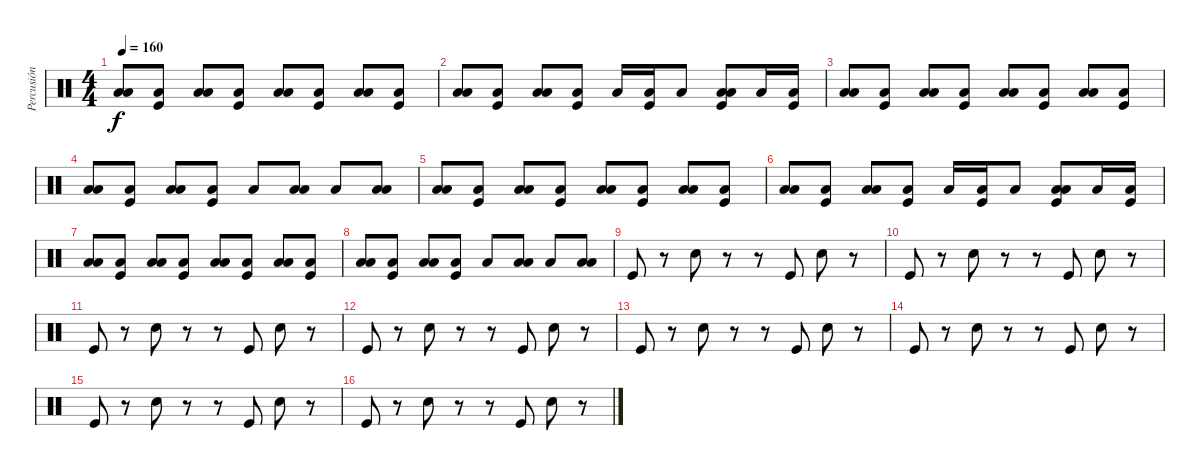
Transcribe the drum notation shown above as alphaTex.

\track ("Percusión" "Percusión") {instrument percussion}
\staff {score}
\articulation defaults
\ts (4 4)
\tempo 160
\clef neutral
\ks c
("Low Tom (hit)" "Low Floor Tom (hit)").8{dy f} ("Low Floor Tom (hit)" "Kick (hit)").8 ("Low Tom (hit)" "Low Floor Tom (hit)").8 ("Low Floor Tom (hit)" "Kick (hit)").8 ("Low Tom (hit)" "Low Floor Tom (hit)").8 ("Low Floor Tom (hit)" "Kick (hit)").8 ("Low Tom (hit)" "Low Floor Tom (hit)").8 ("Low Floor Tom (hit)" "Kick (hit)").8 |
("Low Tom (hit)" "Low Floor Tom (hit)").8 ("Low Floor Tom (hit)" "Kick (hit)").8 ("Low Tom (hit)" "Low Floor Tom (hit)").8 ("Low Floor Tom (hit)" "Kick (hit)").8 "Low Floor Tom (hit)".16 ("Low Tom (hit)" "Kick (hit)").16 "Low Floor Tom (hit)".8 ("Low Tom (hit)" "Low Floor Tom (hit)" "Kick (hit)").8 "Low Floor Tom (hit)".16 ("Low Tom (hit)" "Kick (hit)").16 |
("Low Tom (hit)" "Low Floor Tom (hit)").8 ("Low Floor Tom (hit)" "Kick (hit)").8 ("Low Tom (hit)" "Low Floor Tom (hit)").8 ("Low Floor Tom (hit)" "Kick (hit)").8 ("Low Tom (hit)" "Low Floor Tom (hit)").8 ("Low Floor Tom (hit)" "Kick (hit)").8 ("Low Tom (hit)" "Low Floor Tom (hit)").8 ("Low Floor Tom (hit)" "Kick (hit)").8 |
("Low Tom (hit)" "Low Floor Tom (hit)").8 ("Low Floor Tom (hit)" "Kick (hit)").8 ("Low Tom (hit)" "Low Floor Tom (hit)").8 ("Low Floor Tom (hit)" "Kick (hit)").8 "Low Floor Tom (hit)".8 ("Low Tom (hit)" "Low Floor Tom (hit)").8 "Low Floor Tom (hit)".8 ("Low Tom (hit)" "Low Floor Tom (hit)").8 |
("Low Tom (hit)" "Low Floor Tom (hit)").8 ("Low Floor Tom (hit)" "Kick (hit)").8 ("Low Tom (hit)" "Low Floor Tom (hit)").8 ("Low Floor Tom (hit)" "Kick (hit)").8 ("Low Tom (hit)" "Low Floor Tom (hit)").8 ("Low Floor Tom (hit)" "Kick (hit)").8 ("Low Tom (hit)" "Low Floor Tom (hit)").8 ("Low Floor Tom (hit)" "Kick (hit)").8 |
("Low Tom (hit)" "Low Floor Tom (hit)").8 ("Low Floor Tom (hit)" "Kick (hit)").8 ("Low Tom (hit)" "Low Floor Tom (hit)").8 ("Low Floor Tom (hit)" "Kick (hit)").8 "Low Floor Tom (hit)".16 ("Low Tom (hit)" "Kick (hit)").16 "Low Floor Tom (hit)".8 ("Low Tom (hit)" "Low Floor Tom (hit)" "Kick (hit)").8 "Low Floor Tom (hit)".16 ("Low Tom (hit)" "Kick (hit)").16 |
("Low Tom (hit)" "Low Floor Tom (hit)").8 ("Low Floor Tom (hit)" "Kick (hit)").8 ("Low Tom (hit)" "Low Floor Tom (hit)").8 ("Low Floor Tom (hit)" "Kick (hit)").8 ("Low Tom (hit)" "Low Floor Tom (hit)").8 ("Low Floor Tom (hit)" "Kick (hit)").8 ("Low Tom (hit)" "Low Floor Tom (hit)").8 ("Low Floor Tom (hit)" "Kick (hit)").8 |
("Low Tom (hit)" "Low Floor Tom (hit)").8 ("Low Floor Tom (hit)" "Kick (hit)").8 ("Low Tom (hit)" "Low Floor Tom (hit)").8 ("Low Floor Tom (hit)" "Kick (hit)").8 "Low Floor Tom (hit)".8 ("Low Tom (hit)" "Low Floor Tom (hit)").8 "Low Floor Tom (hit)".8 ("Low Tom (hit)" "Low Floor Tom (hit)").8 |
"Kick (hit)".8 r.8 "Electric Snare (hit)".8 r.8 r.8 "Kick (hit)".8 "Electric Snare (hit)".8 r.8 |
"Kick (hit)".8 r.8 "Electric Snare (hit)".8 r.8 r.8 "Kick (hit)".8 "Electric Snare (hit)".8 r.8 |
"Kick (hit)".8 r.8 "Electric Snare (hit)".8 r.8 r.8 "Kick (hit)".8 "Electric Snare (hit)".8 r.8 |
"Kick (hit)".8 r.8 "Electric Snare (hit)".8 r.8 r.8 "Kick (hit)".8 "Electric Snare (hit)".8 r.8 |
"Kick (hit)".8 r.8 "Electric Snare (hit)".8 r.8 r.8 "Kick (hit)".8 "Electric Snare (hit)".8 r.8 |
"Kick (hit)".8 r.8 "Electric Snare (hit)".8 r.8 r.8 "Kick (hit)".8 "Electric Snare (hit)".8 r.8 |
"Kick (hit)".8 r.8 "Electric Snare (hit)".8 r.8 r.8 "Kick (hit)".8 "Electric Snare (hit)".8 r.8 |
"Kick (hit)".8 r.8 "Electric Snare (hit)".8 r.8 r.8 "Kick (hit)".8 "Electric Snare (hit)".8 r.8
